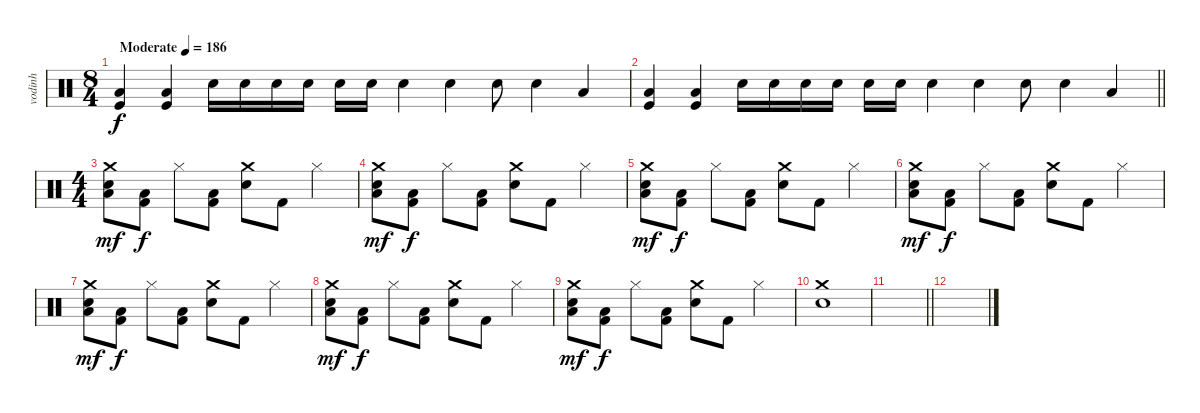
\track ("vodinh" "vodinh") {instrument percussion}
\staff {score}
\articulation defaults
\ts (8 4)
\tempo (186 "Moderate")
\clef neutral
\ks c
("Low Floor Tom (hit)" "Kick (hit)").4{dy f} ("Low Floor Tom (hit)" "Kick (hit)").4 "Electric Snare (hit)".16 "Electric Snare (hit)".16 "Electric Snare (hit)".16 "Electric Snare (hit)".16 "Electric Snare (hit)".16 "Electric Snare (hit)".16 "Electric Snare (hit)".4 "Electric Snare (hit)".4 "Electric Snare (hit)".8 "Electric Snare (hit)".4 "Low Floor Tom (hit)".4 |
\barLineRight lightlight
("Low Floor Tom (hit)" "Kick (hit)").4 ("Low Floor Tom (hit)" "Kick (hit)").4 "Electric Snare (hit)".16 "Electric Snare (hit)".16 "Electric Snare (hit)".16 "Electric Snare (hit)".16 "Electric Snare (hit)".16 "Electric Snare (hit)".16 "Electric Snare (hit)".4 "Electric Snare (hit)".4 "Electric Snare (hit)".8 "Electric Snare (hit)".4 "Low Floor Tom (hit)".4 |
\ts (4 4)
\section ("" " ")
("Snare (hit) 2" "Crash medium (hit)" "Low Floor Tom (hit)").8{dy mf} ("Kick (hit) 2" "Low Floor Tom (hit)").8{dy f} "Hi-Hat (closed)".8 ("Kick (hit) 2" "Low Floor Tom (hit)").8 ("Snare (hit) 2" "Crash medium (hit)").8 "Kick (hit) 2".8 "Hi-Hat (closed)".4 |
("Snare (hit) 2" "Crash medium (hit)" "Low Floor Tom (hit)").8{dy mf} ("Kick (hit) 2" "Low Floor Tom (hit)").8{dy f} "Hi-Hat (closed)".8 ("Kick (hit) 2" "Low Floor Tom (hit)").8 ("Snare (hit) 2" "Crash medium (hit)").8 "Kick (hit) 2".8 "Hi-Hat (closed)".4 |
("Snare (hit) 2" "Crash medium (hit)" "Low Floor Tom (hit)").8{dy mf} ("Kick (hit) 2" "Low Floor Tom (hit)").8{dy f} "Hi-Hat (closed)".8 ("Kick (hit) 2" "Low Floor Tom (hit)").8 ("Snare (hit) 2" "Crash medium (hit)").8 "Kick (hit) 2".8 "Hi-Hat (closed)".4 |
("Snare (hit) 2" "Crash medium (hit)" "Low Floor Tom (hit)").8{dy mf} ("Kick (hit) 2" "Low Floor Tom (hit)").8{dy f} "Hi-Hat (closed)".8 ("Kick (hit) 2" "Low Floor Tom (hit)").8 ("Snare (hit) 2" "Crash medium (hit)").8 "Kick (hit) 2".8 "Hi-Hat (closed)".4 |
("Snare (hit) 2" "Crash medium (hit)" "Low Floor Tom (hit)").8{dy mf} ("Kick (hit) 2" "Low Floor Tom (hit)").8{dy f} "Hi-Hat (closed)".8 ("Kick (hit) 2" "Low Floor Tom (hit)").8 ("Snare (hit) 2" "Crash medium (hit)").8 "Kick (hit) 2".8 "Hi-Hat (closed)".4 |
("Snare (hit) 2" "Crash medium (hit)" "Low Floor Tom (hit)").8{dy mf} ("Kick (hit) 2" "Low Floor Tom (hit)").8{dy f} "Hi-Hat (closed)".8 ("Kick (hit) 2" "Low Floor Tom (hit)").8 ("Snare (hit) 2" "Crash medium (hit)").8 "Kick (hit) 2".8 "Hi-Hat (closed)".4 |
("Snare (hit) 2" "Crash medium (hit)" "Low Floor Tom (hit)").8{dy mf} ("Kick (hit) 2" "Low Floor Tom (hit)").8{dy f} "Hi-Hat (closed)".8 ("Kick (hit) 2" "Low Floor Tom (hit)").8 ("Snare (hit) 2" "Crash medium (hit)").8 "Kick (hit) 2".8 "Hi-Hat (closed)".4 |
("Snare (hit) 2" "Crash medium (hit)").1 |
\barLineRight lightlight
|
\section ("" " ")
